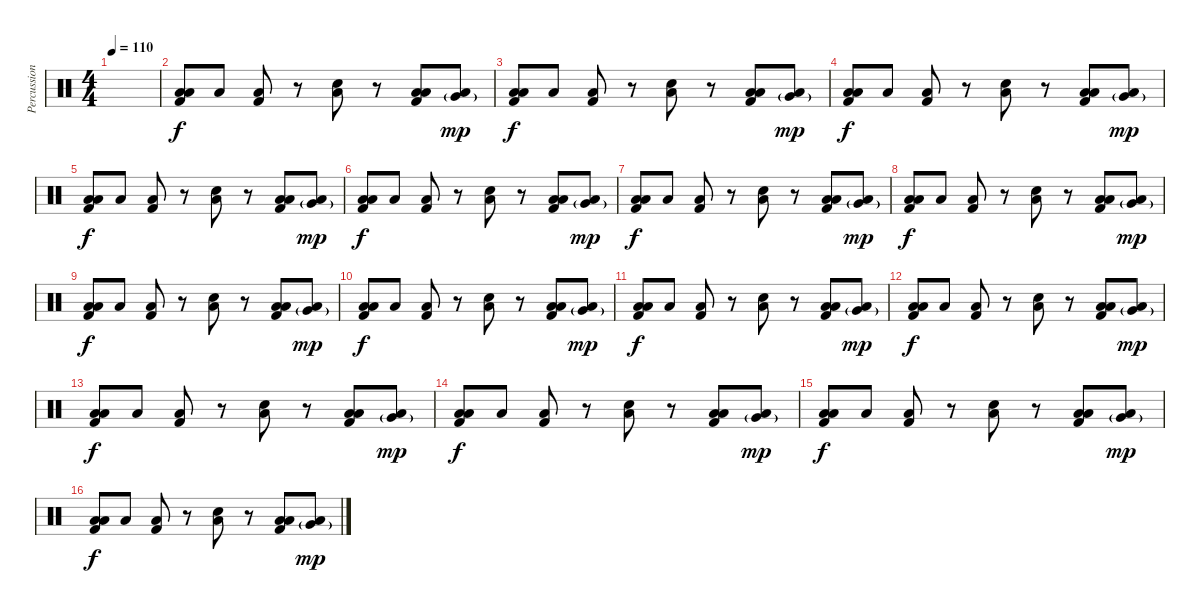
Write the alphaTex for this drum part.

\track ("Percussions" "Percussion") {instrument percussion}
\staff {score}
\articulation defaults
\ts (4 4)
\tempo 110
\clef neutral
\ks c
|
("Low Tom (hit)" "Low Floor Tom (hit)" "Kick (hit) 2").8{dy f} "Low Floor Tom (hit)".8 ("Low Tom (hit)" "Kick (hit) 2").8 r.8 ("Low Floor Tom (hit)" "Snare (hit) 2").8 r.8 ("Low Tom (hit)" "Low Floor Tom (hit)" "Kick (hit) 2").8 ("Very Low Tom (hit)"{g} "Low Floor Tom (hit)").8{dy mp} |
("Low Tom (hit)" "Low Floor Tom (hit)" "Kick (hit) 2").8{dy f} "Low Floor Tom (hit)".8 ("Low Tom (hit)" "Kick (hit) 2").8 r.8 ("Low Floor Tom (hit)" "Snare (hit) 2").8 r.8 ("Low Tom (hit)" "Low Floor Tom (hit)" "Kick (hit) 2").8 ("Very Low Tom (hit)"{g} "Low Floor Tom (hit)").8{dy mp} |
("Low Tom (hit)" "Low Floor Tom (hit)" "Kick (hit) 2").8{dy f} "Low Floor Tom (hit)".8 ("Low Tom (hit)" "Kick (hit) 2").8 r.8 ("Low Floor Tom (hit)" "Snare (hit) 2").8 r.8 ("Low Tom (hit)" "Low Floor Tom (hit)" "Kick (hit) 2").8 ("Very Low Tom (hit)"{g} "Low Floor Tom (hit)").8{dy mp} |
("Low Tom (hit)" "Low Floor Tom (hit)" "Kick (hit) 2").8{dy f} "Low Floor Tom (hit)".8 ("Low Tom (hit)" "Kick (hit) 2").8 r.8 ("Low Floor Tom (hit)" "Snare (hit) 2").8 r.8 ("Low Tom (hit)" "Low Floor Tom (hit)" "Kick (hit) 2").8 ("Very Low Tom (hit)"{g} "Low Floor Tom (hit)").8{dy mp} |
("Low Tom (hit)" "Low Floor Tom (hit)" "Kick (hit) 2").8{dy f} "Low Floor Tom (hit)".8 ("Low Tom (hit)" "Kick (hit) 2").8 r.8 ("Low Floor Tom (hit)" "Snare (hit) 2").8 r.8 ("Low Tom (hit)" "Low Floor Tom (hit)" "Kick (hit) 2").8 ("Very Low Tom (hit)"{g} "Low Floor Tom (hit)").8{dy mp} |
("Low Tom (hit)" "Low Floor Tom (hit)" "Kick (hit) 2").8{dy f} "Low Floor Tom (hit)".8 ("Low Tom (hit)" "Kick (hit) 2").8 r.8 ("Low Floor Tom (hit)" "Snare (hit) 2").8 r.8 ("Low Tom (hit)" "Low Floor Tom (hit)" "Kick (hit) 2").8 ("Very Low Tom (hit)"{g} "Low Floor Tom (hit)").8{dy mp} |
("Low Tom (hit)" "Low Floor Tom (hit)" "Kick (hit) 2").8{dy f} "Low Floor Tom (hit)".8 ("Low Tom (hit)" "Kick (hit) 2").8 r.8 ("Low Floor Tom (hit)" "Snare (hit) 2").8 r.8 ("Low Tom (hit)" "Low Floor Tom (hit)" "Kick (hit) 2").8 ("Very Low Tom (hit)"{g} "Low Floor Tom (hit)").8{dy mp} |
("Low Tom (hit)" "Low Floor Tom (hit)" "Kick (hit) 2").8{dy f} "Low Floor Tom (hit)".8 ("Low Tom (hit)" "Kick (hit) 2").8 r.8 ("Low Floor Tom (hit)" "Snare (hit) 2").8 r.8 ("Low Tom (hit)" "Low Floor Tom (hit)" "Kick (hit) 2").8 ("Very Low Tom (hit)"{g} "Low Floor Tom (hit)").8{dy mp} |
("Low Tom (hit)" "Low Floor Tom (hit)" "Kick (hit) 2").8{dy f} "Low Floor Tom (hit)".8 ("Low Tom (hit)" "Kick (hit) 2").8 r.8 ("Low Floor Tom (hit)" "Snare (hit) 2").8 r.8 ("Low Tom (hit)" "Low Floor Tom (hit)" "Kick (hit) 2").8 ("Very Low Tom (hit)"{g} "Low Floor Tom (hit)").8{dy mp} |
("Low Tom (hit)" "Low Floor Tom (hit)" "Kick (hit) 2").8{dy f} "Low Floor Tom (hit)".8 ("Low Tom (hit)" "Kick (hit) 2").8 r.8 ("Low Floor Tom (hit)" "Snare (hit) 2").8 r.8 ("Low Tom (hit)" "Low Floor Tom (hit)" "Kick (hit) 2").8 ("Very Low Tom (hit)"{g} "Low Floor Tom (hit)").8{dy mp} |
("Low Tom (hit)" "Low Floor Tom (hit)" "Kick (hit) 2").8{dy f} "Low Floor Tom (hit)".8 ("Low Tom (hit)" "Kick (hit) 2").8 r.8 ("Low Floor Tom (hit)" "Snare (hit) 2").8 r.8 ("Low Tom (hit)" "Low Floor Tom (hit)" "Kick (hit) 2").8 ("Very Low Tom (hit)"{g} "Low Floor Tom (hit)").8{dy mp} |
("Low Tom (hit)" "Low Floor Tom (hit)" "Kick (hit) 2").8{dy f} "Low Floor Tom (hit)".8 ("Low Tom (hit)" "Kick (hit) 2").8 r.8 ("Low Floor Tom (hit)" "Snare (hit) 2").8 r.8 ("Low Tom (hit)" "Low Floor Tom (hit)" "Kick (hit) 2").8 ("Very Low Tom (hit)"{g} "Low Floor Tom (hit)").8{dy mp} |
("Low Tom (hit)" "Low Floor Tom (hit)" "Kick (hit) 2").8{dy f} "Low Floor Tom (hit)".8 ("Low Tom (hit)" "Kick (hit) 2").8 r.8 ("Low Floor Tom (hit)" "Snare (hit) 2").8 r.8 ("Low Tom (hit)" "Low Floor Tom (hit)" "Kick (hit) 2").8 ("Very Low Tom (hit)"{g} "Low Floor Tom (hit)").8{dy mp} |
("Low Tom (hit)" "Low Floor Tom (hit)" "Kick (hit) 2").8{dy f} "Low Floor Tom (hit)".8 ("Low Tom (hit)" "Kick (hit) 2").8 r.8 ("Low Floor Tom (hit)" "Snare (hit) 2").8 r.8 ("Low Tom (hit)" "Low Floor Tom (hit)" "Kick (hit) 2").8 ("Very Low Tom (hit)"{g} "Low Floor Tom (hit)").8{dy mp} |
("Low Tom (hit)" "Low Floor Tom (hit)" "Kick (hit) 2").8{dy f} "Low Floor Tom (hit)".8 ("Low Tom (hit)" "Kick (hit) 2").8 r.8 ("Low Floor Tom (hit)" "Snare (hit) 2").8 r.8 ("Low Tom (hit)" "Low Floor Tom (hit)" "Kick (hit) 2").8 ("Very Low Tom (hit)"{g} "Low Floor Tom (hit)").8{dy mp}
